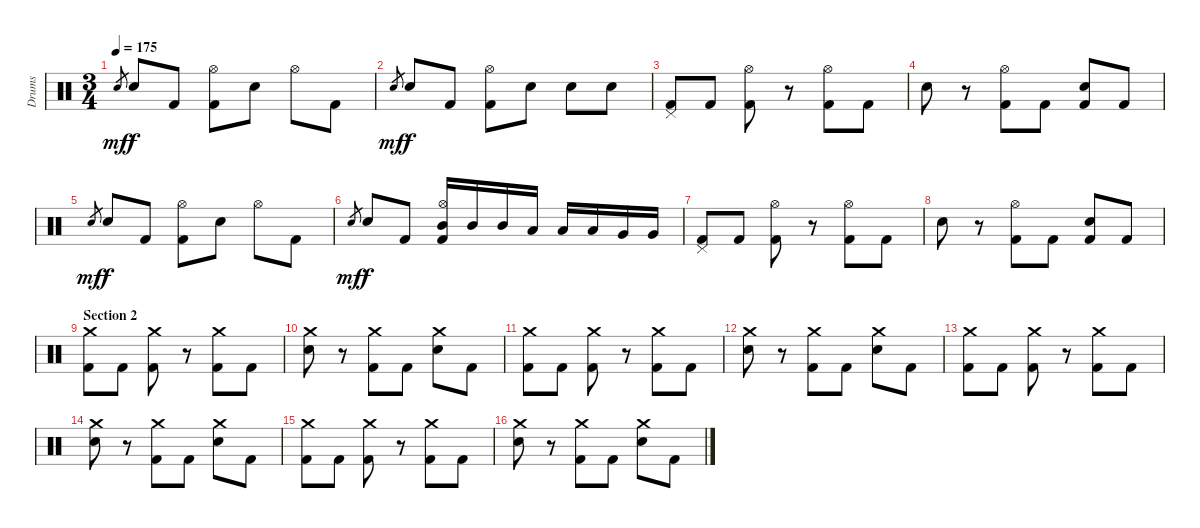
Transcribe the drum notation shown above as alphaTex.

\track ("Drums" "Drums") {instrument percussion}
\staff {score}
\articulation defaults
\ts (3 4)
\tempo 175
\clef neutral
\ks c "Electric Snare (hit)".8{gr dy mf} "Electric Snare (hit)".8{dy f} "Kick (hit) 2".8
("Hi-Hat (open)" "Kick (hit) 2").8 "Electric Snare (hit)".8 "Hi-Hat (open)".8 "Kick (hit) 2".8 |
"Electric Snare (hit)".8{gr dy mf} "Electric Snare (hit)".8{dy f} "Kick (hit) 2".8 ("Hi-Hat (open)" "Kick (hit) 2").8 "Electric Snare (hit)".8 "Electric Snare (hit)".8 "Electric Snare (hit)".8 |
("Pedal Hi-Hat (hit)" "Kick (hit) 2").8 "Kick (hit) 2".8 ("Hi-Hat (open)" "Kick (hit) 2").8 r.8 ("Hi-Hat (open)" "Kick (hit) 2").8 "Kick (hit) 2".8 |
"Electric Snare (hit)".8 r.8 ("Hi-Hat (open)" "Kick (hit) 2").8 "Kick (hit) 2".8 ("Kick (hit) 2" "Electric Snare (hit)").8 "Kick (hit) 2".8 |
"Electric Snare (hit)".8{gr dy mf} "Electric Snare (hit)".8{dy f} "Kick (hit) 2".8 ("Hi-Hat (open)" "Kick (hit) 2").8 "Electric Snare (hit)".8 "Hi-Hat (open)".8 "Kick (hit) 2".8 |
"Electric Snare (hit)".8{gr dy mf} "Electric Snare (hit)".8{dy f} "Kick (hit) 2".8 ("Hi-Hat (open)" "Mid Tom (hit)" "Kick (hit) 2").16 "Mid Tom (hit)".16 "Mid Tom (hit)".16 "Low Tom (hit)".16 "Low Tom (hit)".16 "Low Tom (hit)".16 "Very Low Tom (hit)".16 "Very Low Tom (hit)".16 |
("Pedal Hi-Hat (hit)" "Kick (hit) 2").8 "Kick (hit) 2".8 ("Hi-Hat (open)" "Kick (hit) 2").8 r.8 ("Hi-Hat (open)" "Kick (hit) 2").8 "Kick (hit) 2".8 |
"Electric Snare (hit)".8 r.8 ("Hi-Hat (open)" "Kick (hit) 2").8 "Kick (hit) 2".8 ("Kick (hit) 2" "Electric Snare (hit)").8 "Kick (hit) 2".8 |
\section ("" "Section 2")
("Crash medium (hit)" "Kick (hit) 2").8 "Kick (hit) 2".8 ("Crash medium (hit)" "Kick (hit) 2").8 r.8 ("Crash medium (hit)" "Kick (hit) 2").8 "Kick (hit) 2".8 |
("Crash medium (hit)" "Electric Snare (hit)").8 r.8 ("Crash medium (hit)" "Kick (hit) 2").8 "Kick (hit) 2".8 ("Crash medium (hit)" "Electric Snare (hit)").8 "Kick (hit) 2".8 |
("Crash medium (hit)" "Kick (hit) 2").8 "Kick (hit) 2".8 ("Crash medium (hit)" "Kick (hit) 2").8 r.8 ("Crash medium (hit)" "Kick (hit) 2").8 "Kick (hit) 2".8 |
("Crash medium (hit)" "Electric Snare (hit)").8 r.8 ("Crash medium (hit)" "Kick (hit) 2").8 "Kick (hit) 2".8 ("Crash medium (hit)" "Electric Snare (hit)").8 "Kick (hit) 2".8 |
("Crash medium (hit)" "Kick (hit) 2").8 "Kick (hit) 2".8 ("Crash medium (hit)" "Kick (hit) 2").8 r.8 ("Crash medium (hit)" "Kick (hit) 2").8 "Kick (hit) 2".8 |
("Crash medium (hit)" "Electric Snare (hit)").8 r.8 ("Crash medium (hit)" "Kick (hit) 2").8 "Kick (hit) 2".8 ("Crash medium (hit)" "Electric Snare (hit)").8 "Kick (hit) 2".8 |
("Crash medium (hit)" "Kick (hit) 2").8 "Kick (hit) 2".8 ("Crash medium (hit)" "Kick (hit) 2").8 r.8 ("Crash medium (hit)" "Kick (hit) 2").8 "Kick (hit) 2".8 |
("Crash medium (hit)" "Electric Snare (hit)").8 r.8 ("Crash medium (hit)" "Kick (hit) 2").8 "Kick (hit) 2".8 ("Crash medium (hit)" "Electric Snare (hit)").8 "Kick (hit) 2".8
